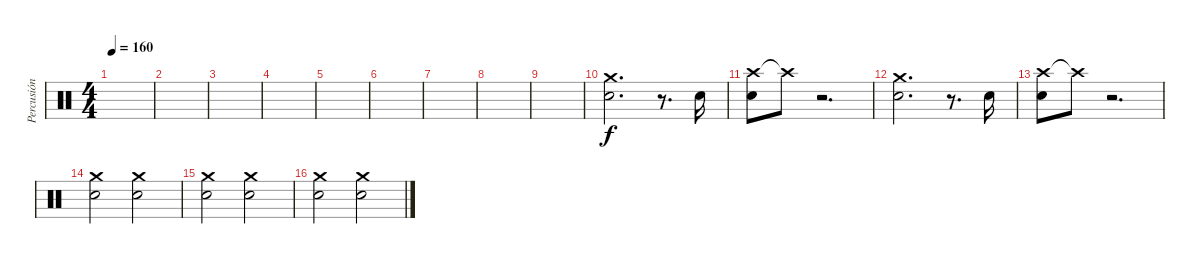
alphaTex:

\track ("Percusión" "Percusión") {instrument percussion}
\staff {score}
\articulation defaults
\ts (4 4)
\tempo 160
\clef neutral
\ks c
|
|
|
|
|
|
|
|
|
("Crash medium (hit)" "Snare (hit) 2").2{d} r.8{d} "Snare (hit) 2".16 |
("Crash high (hit)" "Snare (hit) 2").8 "Crash high (hit)"{t}.8 r.2{d} |
("Crash medium (hit)" "Snare (hit) 2").2{d} r.8{d} "Snare (hit) 2".16 |
("Crash high (hit)" "Snare (hit) 2").8 "Crash high (hit)"{t}.8 r.2{d} |
("Crash medium (hit)" "Snare (hit) 2").2 ("Crash medium (hit)" "Snare (hit) 2").2 |
("Crash medium (hit)" "Snare (hit) 2").2 ("Crash medium (hit)" "Snare (hit) 2").2 |
("Crash medium (hit)" "Snare (hit) 2").2 ("Crash medium (hit)" "Snare (hit) 2").2
